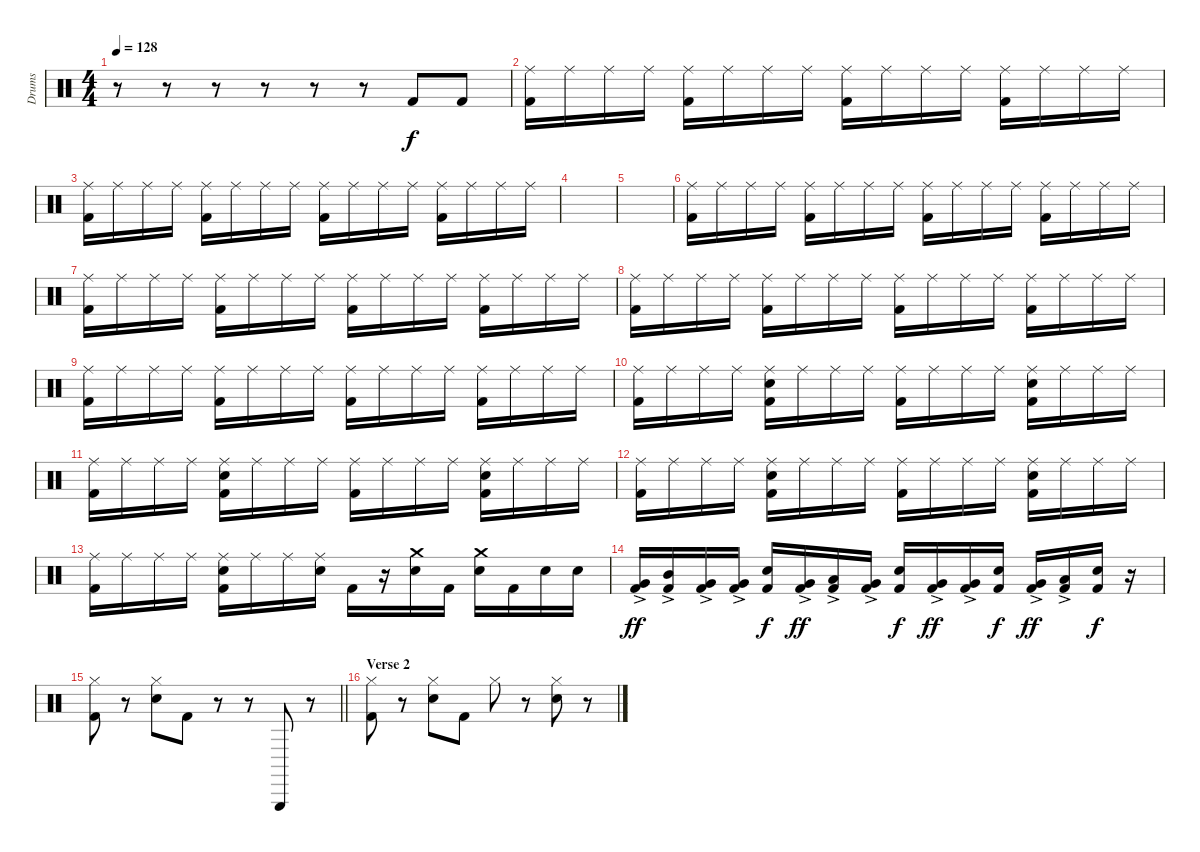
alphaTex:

\track ("Drums" "Drums") {instrument percussion}
\staff {score}
\articulation defaults
\ts (4 4)
\tempo 128
\clef neutral
\ks c
r.8{dy f} r.8 r.8 r.8 r.8 r.8 "Kick (hit) 2".8 "Kick (hit) 2".8 |
("Ride (middle)" "Kick (hit) 2").16 "Ride (middle)".16 "Ride (middle)".16 "Ride (middle)".16 ("Ride (middle)" "Kick (hit) 2").16 "Ride (middle)".16 "Ride (middle)".16 "Ride (middle)".16 ("Ride (middle)" "Kick (hit) 2").16 "Ride (middle)".16 "Ride (middle)".16 "Ride (middle)".16 ("Ride (middle)" "Kick (hit) 2").16 "Ride (middle)".16 "Ride (middle)".16 "Ride (middle)".16 |
("Ride (middle)" "Kick (hit) 2").16 "Ride (middle)".16 "Ride (middle)".16 "Ride (middle)".16 ("Ride (middle)" "Kick (hit) 2").16 "Ride (middle)".16 "Ride (middle)".16 "Ride (middle)".16 ("Ride (middle)" "Kick (hit) 2").16 "Ride (middle)".16 "Ride (middle)".16 "Ride (middle)".16 ("Ride (middle)" "Kick (hit) 2").16 "Ride (middle)".16 "Ride (middle)".16 "Ride (middle)".16 |
|
|
("Ride (middle)" "Kick (hit) 2").16 "Ride (middle)".16 "Ride (middle)".16 "Ride (middle)".16 ("Ride (middle)" "Kick (hit) 2").16 "Ride (middle)".16 "Ride (middle)".16 "Ride (middle)".16 ("Ride (middle)" "Kick (hit) 2").16 "Ride (middle)".16 "Ride (middle)".16 "Ride (middle)".16 ("Ride (middle)" "Kick (hit) 2").16 "Ride (middle)".16 "Ride (middle)".16 "Ride (middle)".16 |
("Ride (middle)" "Kick (hit) 2").16 "Ride (middle)".16 "Ride (middle)".16 "Ride (middle)".16 ("Ride (middle)" "Kick (hit) 2").16 "Ride (middle)".16 "Ride (middle)".16 "Ride (middle)".16 ("Ride (middle)" "Kick (hit) 2").16 "Ride (middle)".16 "Ride (middle)".16 "Ride (middle)".16 ("Ride (middle)" "Kick (hit) 2").16 "Ride (middle)".16 "Ride (middle)".16 "Ride (middle)".16 |
("Ride (middle)" "Kick (hit) 2").16 "Ride (middle)".16 "Ride (middle)".16 "Ride (middle)".16 ("Ride (middle)" "Kick (hit) 2").16 "Ride (middle)".16 "Ride (middle)".16 "Ride (middle)".16 ("Ride (middle)" "Kick (hit) 2").16 "Ride (middle)".16 "Ride (middle)".16 "Ride (middle)".16 ("Ride (middle)" "Kick (hit) 2").16 "Ride (middle)".16 "Ride (middle)".16 "Ride (middle)".16 |
("Ride (middle)" "Kick (hit) 2").16 "Ride (middle)".16 "Ride (middle)".16 "Ride (middle)".16 ("Ride (middle)" "Kick (hit) 2").16 "Ride (middle)".16 "Ride (middle)".16 "Ride (middle)".16 ("Ride (middle)" "Kick (hit) 2").16 "Ride (middle)".16 "Ride (middle)".16 "Ride (middle)".16 ("Ride (middle)" "Kick (hit) 2").16 "Ride (middle)".16 "Ride (middle)".16 "Ride (middle)".16 |
("Ride (middle)" "Kick (hit) 2").16 "Ride (middle)".16 "Ride (middle)".16 "Ride (middle)".16 ("Ride (middle)" "Electric Snare (hit)" "Kick (hit) 2").16 "Ride (middle)".16 "Ride (middle)".16 "Ride (middle)".16 ("Ride (middle)" "Kick (hit) 2").16 "Ride (middle)".16 "Ride (middle)".16 "Ride (middle)".16 ("Ride (middle)" "Electric Snare (hit)" "Kick (hit) 2").16 "Ride (middle)".16 "Ride (middle)".16 "Ride (middle)".16 |
("Ride (middle)" "Kick (hit) 2").16 "Ride (middle)".16 "Ride (middle)".16 "Ride (middle)".16 ("Ride (middle)" "Electric Snare (hit)" "Kick (hit) 2").16 "Ride (middle)".16 "Ride (middle)".16 "Ride (middle)".16 ("Ride (middle)" "Kick (hit) 2").16 "Ride (middle)".16 "Ride (middle)".16 "Ride (middle)".16 ("Ride (middle)" "Electric Snare (hit)" "Kick (hit) 2").16 "Ride (middle)".16 "Ride (middle)".16 "Ride (middle)".16 |
("Ride (middle)" "Kick (hit) 2").16 "Ride (middle)".16 "Ride (middle)".16 "Ride (middle)".16 ("Ride (middle)" "Electric Snare (hit)" "Kick (hit) 2").16 "Ride (middle)".16 "Ride (middle)".16 "Ride (middle)".16 ("Ride (middle)" "Kick (hit) 2").16 "Ride (middle)".16 "Ride (middle)".16 "Ride (middle)".16 ("Ride (middle)" "Electric Snare (hit)" "Kick (hit) 2").16 "Ride (middle)".16 "Ride (middle)".16 "Ride (middle)".16 |
("Ride (middle)" "Kick (hit) 2").16 "Ride (middle)".16 "Ride (middle)".16 "Ride (middle)".16 ("Ride (middle)" "Electric Snare (hit)" "Kick (hit) 2").16 "Ride (middle)".16 "Ride (middle)".16 ("Ride (middle)" "Electric Snare (hit)").16 "Kick (hit) 2".16 r.16 ("Crash medium (hit)" "Electric Snare (hit)").16 "Kick (hit) 2".16 ("Crash medium (hit)" "Electric Snare (hit)").16 "Kick (hit) 2".16 "Electric Snare (hit)".16 "Electric Snare (hit)".16 |
("Very Low Tom (hit)"{ac} "Kick (hit) 2").16{dy ff} ("Mid Tom (hit)"{ac} "Kick (hit) 2").16 ("Very Low Tom (hit)"{ac} "Kick (hit) 2").16 ("Very Low Tom (hit)"{ac} "Kick (hit) 2").16 ("Electric Snare (hit)" "Kick (hit) 2").16{dy f} ("Very Low Tom (hit)"{ac} "Kick (hit) 2").16{dy ff} ("Low Floor Tom (hit)"{ac} "Kick (hit) 2").16 ("Very Low Tom (hit)"{ac} "Kick (hit) 2").16 ("Electric Snare (hit)" "Kick (hit) 2").16{dy f} ("Very Low Tom (hit)"{ac} "Kick (hit) 2").16{dy ff} ("Very Low Tom (hit)"{ac} "Kick (hit) 2").16 ("Electric Snare (hit)" "Kick (hit) 2").16{dy f} ("Very Low Tom (hit)"{ac} "Kick (hit) 2").16{dy ff} ("Low Floor Tom (hit)"{ac} "Kick (hit) 2").16 ("Electric Snare (hit)" "Kick (hit) 2").16{dy f} r.16 |
\barLineRight lightlight
("Hi-Hat (closed)" "Kick (hit) 2").8 r.8 ("Hi-Hat (closed)" "Electric Snare (hit)").8 "Kick (hit) 2".8 r.8 r.8 "Triangle (hit)".8 r.8 |
\section ("" "Verse 2")
("Hi-Hat (closed)" "Kick (hit) 2").8 r.8 ("Hi-Hat (closed)" "Electric Snare (hit)").8 "Kick (hit) 2".8 "Hi-Hat (closed)".8 r.8 ("Hi-Hat (closed)" "Electric Snare (hit)").8 r.8
